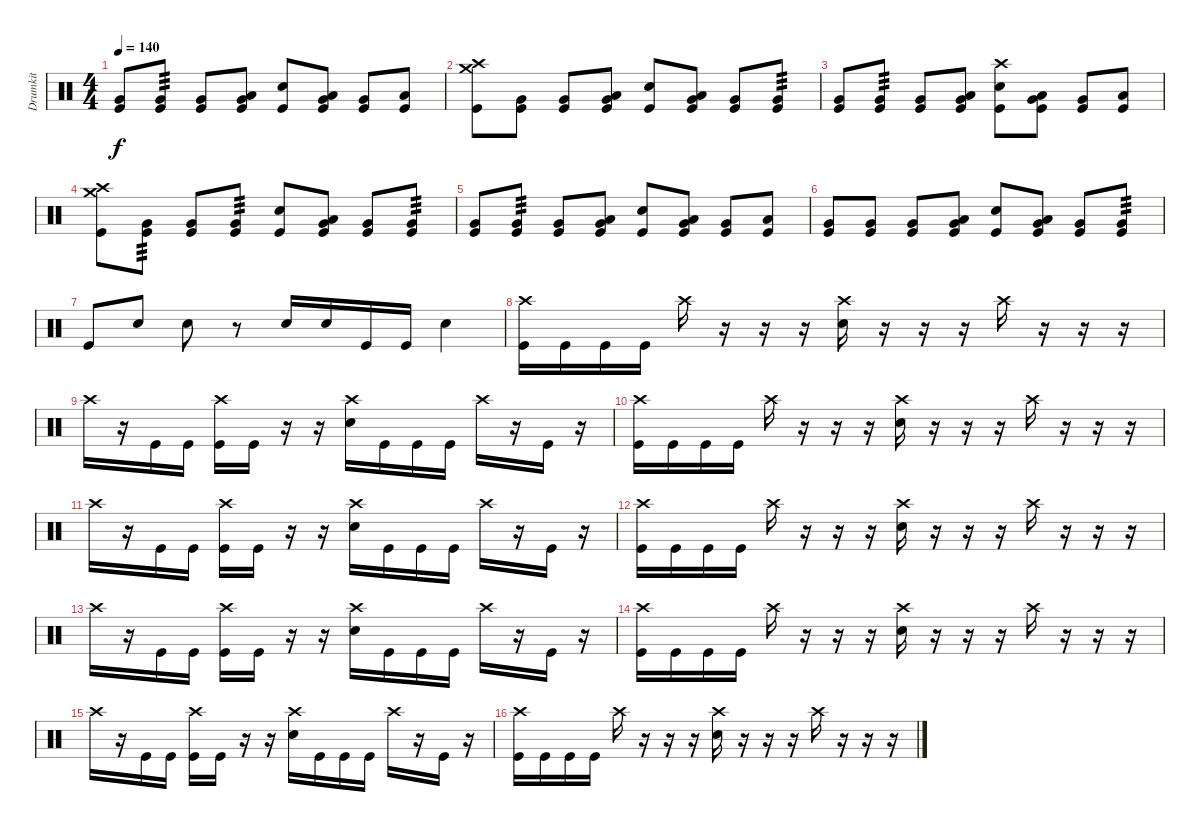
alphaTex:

\track ("Drumkit" "Drumkit") {instrument percussion}
\staff {score}
\articulation defaults
\ts (4 4)
\tempo 140
\clef neutral
\ks c
("Very Low Tom (hit)" "Kick (hit)").8{dy f} ("Very Low Tom (hit)" "Kick (hit)").8{tp 3} ("Very Low Tom (hit)" "Kick (hit)").8 ("Low Tom (hit)" "Very Low Tom (hit)" "Kick (hit)").8 ("Snare (hit) 2" "Kick (hit)").8 ("Low Tom (hit)" "Very Low Tom (hit)" "Kick (hit)").8 ("Very Low Tom (hit)" "Kick (hit)").8 ("Low Tom (hit)" "Kick (hit)").8 |
("Crash medium (hit)" "Crash high (hit)" "Kick (hit)").8 ("Very Low Tom (hit)" "Kick (hit)").8 ("Very Low Tom (hit)" "Kick (hit)").8 ("Low Tom (hit)" "Very Low Tom (hit)" "Kick (hit)").8 ("Snare (hit) 2" "Kick (hit)").8 ("Low Tom (hit)" "Very Low Tom (hit)" "Kick (hit)").8 ("Very Low Tom (hit)" "Kick (hit)").8 ("Very Low Tom (hit)" "Kick (hit)").8{tp 3} |
("Very Low Tom (hit)" "Kick (hit)").8 ("Very Low Tom (hit)" "Kick (hit)").8{tp 3} ("Very Low Tom (hit)" "Kick (hit)").8 ("Low Tom (hit)" "Very Low Tom (hit)" "Kick (hit)").8 ("Crash high (hit)" "Snare (hit) 2" "Kick (hit)").8 ("Low Tom (hit)" "Very Low Tom (hit)" "Kick (hit)").8 ("Very Low Tom (hit)" "Kick (hit)").8 ("Low Tom (hit)" "Kick (hit)").8 |
("Crash medium (hit)" "Crash high (hit)" "Kick (hit)").8 ("Very Low Tom (hit)" "Kick (hit)").8{tp 3} ("Very Low Tom (hit)" "Kick (hit)").8 ("Very Low Tom (hit)" "Kick (hit)").8{tp 3} ("Snare (hit) 2" "Kick (hit)").8 ("Low Tom (hit)" "Very Low Tom (hit)" "Kick (hit)").8 ("Very Low Tom (hit)" "Kick (hit)").8 ("Very Low Tom (hit)" "Kick (hit)").8{tp 3} |
("Very Low Tom (hit)" "Kick (hit)").8 ("Very Low Tom (hit)" "Kick (hit)").8{tp 3} ("Very Low Tom (hit)" "Kick (hit)").8 ("Low Tom (hit)" "Very Low Tom (hit)" "Kick (hit)").8 ("Snare (hit) 2" "Kick (hit)").8 ("Low Tom (hit)" "Very Low Tom (hit)" "Kick (hit)").8 ("Very Low Tom (hit)" "Kick (hit)").8 ("Low Tom (hit)" "Kick (hit)").8 |
("Very Low Tom (hit)" "Kick (hit)").8 ("Very Low Tom (hit)" "Kick (hit)").8 ("Very Low Tom (hit)" "Kick (hit)").8 ("Low Tom (hit)" "Very Low Tom (hit)" "Kick (hit)").8 ("Snare (hit) 2" "Kick (hit)").8 ("Low Tom (hit)" "Very Low Tom (hit)" "Kick (hit)").8 ("Very Low Tom (hit)" "Kick (hit)").8 ("Very Low Tom (hit)" "Kick (hit)").8{tp 3} |
"Kick (hit)".8 "Snare (hit) 2".8 "Snare (hit) 2".8 r.8 "Snare (hit) 2".16 "Snare (hit) 2".16 "Kick (hit)".16 "Kick (hit)".16 "Snare (hit) 2".4 |
("Crash high (hit)" "Kick (hit)").16 "Kick (hit)".16 "Kick (hit)".16 "Kick (hit)".16 "Crash high (hit)".16 r.16 r.16 r.16 ("Crash high (hit)" "Snare (hit) 2").16 r.16 r.16 r.16 "Crash high (hit)".16 r.16 r.16 r.16 |
"Crash high (hit)".16 r.16 "Kick (hit)".16 "Kick (hit)".16 ("Crash high (hit)" "Kick (hit)").16 "Kick (hit)".16 r.16 r.16 ("Crash high (hit)" "Snare (hit) 2").16 "Kick (hit)".16 "Kick (hit)".16 "Kick (hit)".16 "Crash high (hit)".16 r.16 "Kick (hit)".16 r.16 |
("Crash high (hit)" "Kick (hit)").16 "Kick (hit)".16 "Kick (hit)".16 "Kick (hit)".16 "Crash high (hit)".16 r.16 r.16 r.16 ("Crash high (hit)" "Snare (hit) 2").16 r.16 r.16 r.16 "Crash high (hit)".16 r.16 r.16 r.16 |
"Crash high (hit)".16 r.16 "Kick (hit)".16 "Kick (hit)".16 ("Crash high (hit)" "Kick (hit)").16 "Kick (hit)".16 r.16 r.16 ("Crash high (hit)" "Snare (hit) 2").16 "Kick (hit)".16 "Kick (hit)".16 "Kick (hit)".16 "Crash high (hit)".16 r.16 "Kick (hit)".16 r.16 |
("Crash high (hit)" "Kick (hit)").16 "Kick (hit)".16 "Kick (hit)".16 "Kick (hit)".16 "Crash high (hit)".16 r.16 r.16 r.16 ("Crash high (hit)" "Snare (hit) 2").16 r.16 r.16 r.16 "Crash high (hit)".16 r.16 r.16 r.16 |
"Crash high (hit)".16 r.16 "Kick (hit)".16 "Kick (hit)".16 ("Crash high (hit)" "Kick (hit)").16 "Kick (hit)".16 r.16 r.16 ("Crash high (hit)" "Snare (hit) 2").16 "Kick (hit)".16 "Kick (hit)".16 "Kick (hit)".16 "Crash high (hit)".16 r.16 "Kick (hit)".16 r.16 |
("Crash high (hit)" "Kick (hit)").16 "Kick (hit)".16 "Kick (hit)".16 "Kick (hit)".16 "Crash high (hit)".16 r.16 r.16 r.16 ("Crash high (hit)" "Snare (hit) 2").16 r.16 r.16 r.16 "Crash high (hit)".16 r.16 r.16 r.16 |
"Crash high (hit)".16 r.16 "Kick (hit)".16 "Kick (hit)".16 ("Crash high (hit)" "Kick (hit)").16 "Kick (hit)".16 r.16 r.16 ("Crash high (hit)" "Snare (hit) 2").16 "Kick (hit)".16 "Kick (hit)".16 "Kick (hit)".16 "Crash high (hit)".16 r.16 "Kick (hit)".16 r.16 |
("Crash high (hit)" "Kick (hit)").16 "Kick (hit)".16 "Kick (hit)".16 "Kick (hit)".16 "Crash high (hit)".16 r.16 r.16 r.16 ("Crash high (hit)" "Snare (hit) 2").16 r.16 r.16 r.16 "Crash high (hit)".16 r.16 r.16 r.16
